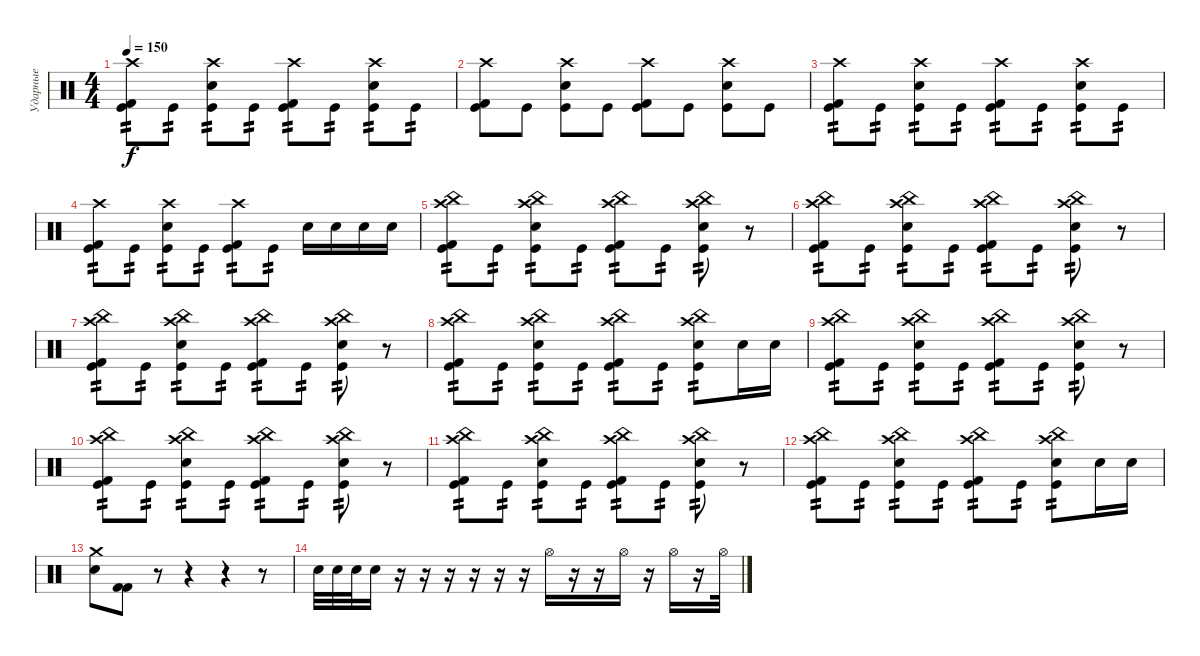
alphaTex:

\track ("Ударные" "Ударные") {instrument percussion}
\staff {score}
\articulation defaults
\ts (4 4)
\tempo 150
\clef neutral
\ks c
("Crash high (hit)" "Kick (hit) 2" "Kick (hit)").8{tp 2 dy f} "Kick (hit)".8{tp 2} ("Crash high (hit)" "Electric Snare (hit)" "Kick (hit)").8{tp 2} "Kick (hit)".8{tp 2} ("Crash high (hit)" "Kick (hit) 2" "Kick (hit)").8{tp 2} "Kick (hit)".8{tp 2} ("Crash high (hit)" "Electric Snare (hit)" "Kick (hit)").8{tp 2} "Kick (hit)".8{tp 2} |
("Crash high (hit)" "Kick (hit) 2" "Kick (hit)").8 "Kick (hit)".8 ("Crash high (hit)" "Electric Snare (hit)" "Kick (hit)").8 "Kick (hit)".8 ("Crash high (hit)" "Kick (hit) 2" "Kick (hit)").8 "Kick (hit)".8 ("Crash high (hit)" "Electric Snare (hit)" "Kick (hit)").8 "Kick (hit)".8 |
("Crash high (hit)" "Kick (hit) 2" "Kick (hit)").8{tp 2} "Kick (hit)".8{tp 2} ("Crash high (hit)" "Electric Snare (hit)" "Kick (hit)").8{tp 2} "Kick (hit)".8{tp 2} ("Crash high (hit)" "Kick (hit) 2" "Kick (hit)").8{tp 2} "Kick (hit)".8{tp 2} ("Crash high (hit)" "Electric Snare (hit)" "Kick (hit)").8{tp 2} "Kick (hit)".8{tp 2} |
("Crash high (hit)" "Kick (hit) 2" "Kick (hit)").8{tp 2} "Kick (hit)".8{tp 2} ("Crash high (hit)" "Electric Snare (hit)" "Kick (hit)").8{tp 2} "Kick (hit)".8{tp 2} ("Crash high (hit)" "Kick (hit) 2" "Kick (hit)").8{tp 2} "Kick (hit)".8{tp 2} "Snare (hit) 2".16 "Snare (hit) 2".16 "Snare (hit) 2".16 "Snare (hit) 2".16 |
("Crash high (hit)" "Kick (hit) 2" "China (hit)" "Kick (hit)").8{tp 2} "Kick (hit)".8{tp 2} ("Crash high (hit)" "Electric Snare (hit)" "China (hit)" "Kick (hit)").8{tp 2} "Kick (hit)".8{tp 2} ("Crash high (hit)" "Kick (hit) 2" "China (hit)" "Kick (hit)").8{tp 2} "Kick (hit)".8{tp 2} ("Crash high (hit)" "Electric Snare (hit)" "China (hit)" "Kick (hit)").8{tp 2} r.8 |
("Crash high (hit)" "Kick (hit) 2" "China (hit)" "Kick (hit)").8{tp 2} "Kick (hit)".8{tp 2} ("Crash high (hit)" "Electric Snare (hit)" "China (hit)" "Kick (hit)").8{tp 2} "Kick (hit)".8{tp 2} ("Crash high (hit)" "Kick (hit) 2" "China (hit)" "Kick (hit)").8{tp 2} "Kick (hit)".8{tp 2} ("Crash high (hit)" "Electric Snare (hit)" "China (hit)" "Kick (hit)").8{tp 2} r.8 |
("Crash high (hit)" "Kick (hit) 2" "China (hit)" "Kick (hit)").8{tp 2} "Kick (hit)".8{tp 2} ("Crash high (hit)" "Electric Snare (hit)" "China (hit)" "Kick (hit)").8{tp 2} "Kick (hit)".8{tp 2} ("Crash high (hit)" "Kick (hit) 2" "China (hit)" "Kick (hit)").8{tp 2} "Kick (hit)".8{tp 2} ("Crash high (hit)" "Electric Snare (hit)" "China (hit)" "Kick (hit)").8{tp 2} r.8 |
("Crash high (hit)" "Kick (hit) 2" "China (hit)" "Kick (hit)").8{tp 2} "Kick (hit)".8{tp 2} ("Crash high (hit)" "Electric Snare (hit)" "China (hit)" "Kick (hit)").8{tp 2} "Kick (hit)".8{tp 2} ("Crash high (hit)" "Kick (hit) 2" "China (hit)" "Kick (hit)").8{tp 2} "Kick (hit)".8{tp 2} ("Crash high (hit)" "Electric Snare (hit)" "China (hit)" "Kick (hit)").8{tp 2} "Electric Snare (hit)".16 "Electric Snare (hit)".16 |
("Crash high (hit)" "Kick (hit) 2" "China (hit)" "Kick (hit)").8{tp 2} "Kick (hit)".8{tp 2} ("Crash high (hit)" "Electric Snare (hit)" "China (hit)" "Kick (hit)").8{tp 2} "Kick (hit)".8{tp 2} ("Crash high (hit)" "Kick (hit) 2" "China (hit)" "Kick (hit)").8{tp 2} "Kick (hit)".8{tp 2} ("Crash high (hit)" "Electric Snare (hit)" "China (hit)" "Kick (hit)").8{tp 2} r.8 |
("Crash high (hit)" "Kick (hit) 2" "China (hit)" "Kick (hit)").8{tp 2} "Kick (hit)".8{tp 2} ("Crash high (hit)" "Electric Snare (hit)" "China (hit)" "Kick (hit)").8{tp 2} "Kick (hit)".8{tp 2} ("Crash high (hit)" "Kick (hit) 2" "China (hit)" "Kick (hit)").8{tp 2} "Kick (hit)".8{tp 2} ("Crash high (hit)" "Electric Snare (hit)" "China (hit)" "Kick (hit)").8{tp 2} r.8 |
("Crash high (hit)" "Kick (hit) 2" "China (hit)" "Kick (hit)").8{tp 2} "Kick (hit)".8{tp 2} ("Crash high (hit)" "Electric Snare (hit)" "China (hit)" "Kick (hit)").8{tp 2} "Kick (hit)".8{tp 2} ("Crash high (hit)" "Kick (hit) 2" "China (hit)" "Kick (hit)").8{tp 2} "Kick (hit)".8{tp 2} ("Crash high (hit)" "Electric Snare (hit)" "China (hit)" "Kick (hit)").8{tp 2} r.8 |
("Crash high (hit)" "Kick (hit) 2" "China (hit)" "Kick (hit)").8{tp 2} "Kick (hit)".8{tp 2} ("Crash high (hit)" "Electric Snare (hit)" "China (hit)" "Kick (hit)").8{tp 2} "Kick (hit)".8{tp 2} ("Crash high (hit)" "Kick (hit) 2" "China (hit)" "Kick (hit)").8{tp 2} "Kick (hit)".8{tp 2} ("Crash high (hit)" "Electric Snare (hit)" "China (hit)" "Kick (hit)").8{tp 2} "Electric Snare (hit)".16 "Electric Snare (hit)".16 |
("Crash medium (hit)" "Electric Snare (hit)").8 ("Kick (hit) 2" "Kick (hit) 2").8 r.8 r.4 r.4 r.8 |
"Snare (hit) 2".32 "Snare (hit) 2".32 "Snare (hit) 2".32 "Snare (hit) 2".16 r.16 r.16 r.16 r.16 r.16 r.16 "Hi-Hat (open)".16 r.16 r.16 "Hi-Hat (open)".16 r.16 "Hi-Hat (open)".16 r.16 "Hi-Hat (open)".32
